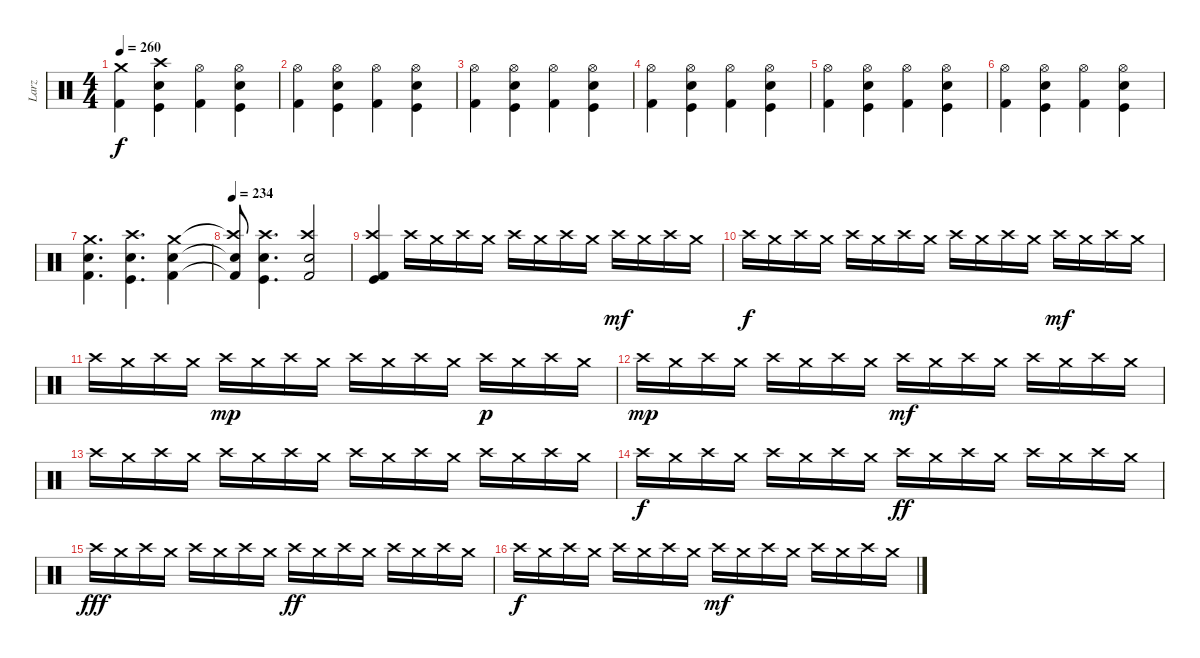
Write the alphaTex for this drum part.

\track ("Larz" "Larz") {instrument percussion}
\staff {score}
\articulation defaults
\ts (4 4)
\tempo 260
\clef neutral
\ks c
("Crash medium (hit)" "Kick (hit) 2").4{dy f} ("Crash high (hit)" "Kick (hit)" "Electric Snare (hit)").4 ("Hi-Hat (open)" "Kick (hit) 2").4 ("Hi-Hat (open)" "Kick (hit)" "Electric Snare (hit)").4 |
("Hi-Hat (open)" "Kick (hit) 2").4 ("Hi-Hat (open)" "Kick (hit)" "Electric Snare (hit)").4 ("Hi-Hat (open)" "Kick (hit) 2").4 ("Hi-Hat (open)" "Kick (hit)" "Electric Snare (hit)").4 |
("Hi-Hat (open)" "Kick (hit) 2").4 ("Hi-Hat (open)" "Kick (hit)" "Electric Snare (hit)").4 ("Hi-Hat (open)" "Kick (hit) 2").4 ("Hi-Hat (open)" "Kick (hit)" "Electric Snare (hit)").4 |
("Hi-Hat (open)" "Kick (hit) 2").4 ("Hi-Hat (open)" "Kick (hit)" "Electric Snare (hit)").4 ("Hi-Hat (open)" "Kick (hit) 2").4 ("Hi-Hat (open)" "Kick (hit)" "Electric Snare (hit)").4 |
("Hi-Hat (open)" "Kick (hit) 2").4 ("Hi-Hat (open)" "Kick (hit)" "Electric Snare (hit)").4 ("Hi-Hat (open)" "Kick (hit) 2").4 ("Hi-Hat (open)" "Kick (hit)" "Electric Snare (hit)").4 |
("Hi-Hat (open)" "Kick (hit) 2").4 ("Hi-Hat (open)" "Kick (hit)" "Electric Snare (hit)").4 ("Hi-Hat (open)" "Kick (hit) 2").4 ("Hi-Hat (open)" "Kick (hit)" "Electric Snare (hit)").4 |
("Crash medium (hit)" "Kick (hit) 2" "Electric Snare (hit)").4{d} ("Crash high (hit)" "Kick (hit)" "Electric Snare (hit)").4{d} ("Crash medium (hit)" "Kick (hit) 2" "Electric Snare (hit)").4 |
\tempo 234
("Crash high (hit)"{t} "Kick (hit) 2"{t} "Electric Snare (hit)"{t}).8 ("Crash high (hit)" "Kick (hit)" "Electric Snare (hit)").4{d} ("Crash high (hit)" "Kick (hit) 2" "Electric Snare (hit)").2 |
("Crash high (hit)" "Kick (hit)" "Kick (hit) 2").4 "Crash high (hit)".16 "Crash medium (hit)".16 "Crash high (hit)".16 "Crash medium (hit)".16 "Crash high (hit)".16 "Crash medium (hit)".16 "Crash high (hit)".16 "Crash medium (hit)".16 "Crash high (hit)".16{dy mf} "Crash medium (hit)".16 "Crash high (hit)".16 "Crash medium (hit)".16 |
"Crash high (hit)".16{dy f} "Crash medium (hit)".16 "Crash high (hit)".16 "Crash medium (hit)".16 "Crash high (hit)".16 "Crash medium (hit)".16 "Crash high (hit)".16 "Crash medium (hit)".16 "Crash high (hit)".16 "Crash medium (hit)".16 "Crash high (hit)".16 "Crash medium (hit)".16 "Crash high (hit)".16{dy mf} "Crash medium (hit)".16 "Crash high (hit)".16 "Crash medium (hit)".16 |
"Crash high (hit)".16 "Crash medium (hit)".16 "Crash high (hit)".16 "Crash medium (hit)".16 "Crash high (hit)".16{dy mp} "Crash medium (hit)".16 "Crash high (hit)".16 "Crash medium (hit)".16 "Crash high (hit)".16 "Crash medium (hit)".16 "Crash high (hit)".16 "Crash medium (hit)".16 "Crash high (hit)".16{dy p} "Crash medium (hit)".16 "Crash high (hit)".16 "Crash medium (hit)".16 |
"Crash high (hit)".16{dy mp} "Crash medium (hit)".16 "Crash high (hit)".16 "Crash medium (hit)".16 "Crash high (hit)".16 "Crash medium (hit)".16 "Crash high (hit)".16 "Crash medium (hit)".16 "Crash high (hit)".16{dy mf} "Crash medium (hit)".16 "Crash high (hit)".16 "Crash medium (hit)".16 "Crash high (hit)".16 "Crash medium (hit)".16 "Crash high (hit)".16 "Crash medium (hit)".16 |
"Crash high (hit)".16 "Crash medium (hit)".16 "Crash high (hit)".16 "Crash medium (hit)".16 "Crash high (hit)".16 "Crash medium (hit)".16 "Crash high (hit)".16 "Crash medium (hit)".16 "Crash high (hit)".16 "Crash medium (hit)".16 "Crash high (hit)".16 "Crash medium (hit)".16 "Crash high (hit)".16 "Crash medium (hit)".16 "Crash high (hit)".16 "Crash medium (hit)".16 |
"Crash high (hit)".16{dy f} "Crash medium (hit)".16 "Crash high (hit)".16 "Crash medium (hit)".16 "Crash high (hit)".16 "Crash medium (hit)".16 "Crash high (hit)".16 "Crash medium (hit)".16 "Crash high (hit)".16{dy ff} "Crash medium (hit)".16 "Crash high (hit)".16 "Crash medium (hit)".16 "Crash high (hit)".16 "Crash medium (hit)".16 "Crash high (hit)".16 "Crash medium (hit)".16 |
"Crash high (hit)".16{dy fff} "Crash medium (hit)".16 "Crash high (hit)".16 "Crash medium (hit)".16 "Crash high (hit)".16 "Crash medium (hit)".16 "Crash high (hit)".16 "Crash medium (hit)".16 "Crash high (hit)".16{dy ff} "Crash medium (hit)".16 "Crash high (hit)".16 "Crash medium (hit)".16 "Crash high (hit)".16 "Crash medium (hit)".16 "Crash high (hit)".16 "Crash medium (hit)".16 |
"Crash high (hit)".16{dy f} "Crash medium (hit)".16 "Crash high (hit)".16 "Crash medium (hit)".16 "Crash high (hit)".16 "Crash medium (hit)".16 "Crash high (hit)".16 "Crash medium (hit)".16 "Crash high (hit)".16{dy mf} "Crash medium (hit)".16 "Crash high (hit)".16 "Crash medium (hit)".16 "Crash high (hit)".16 "Crash medium (hit)".16 "Crash high (hit)".16 "Crash medium (hit)".16
